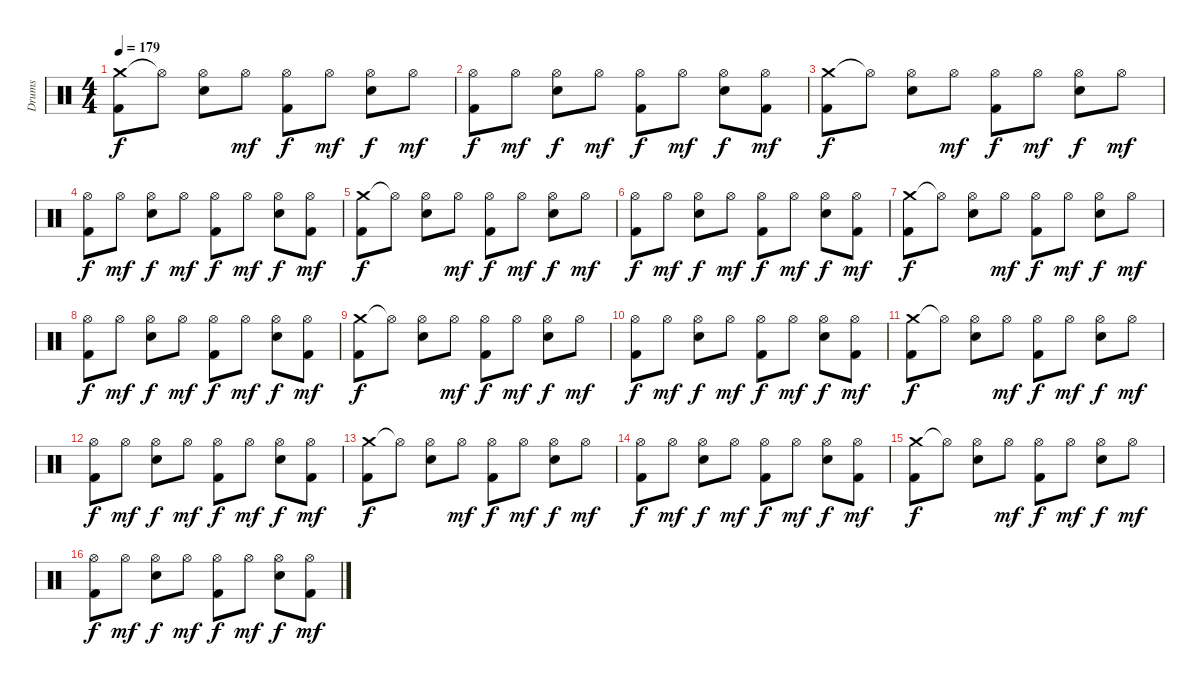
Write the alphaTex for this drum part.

\track ("Drums" "Drums") {instrument percussion}
\staff {score}
\articulation defaults
\ts (4 4)
\tempo 179
\clef neutral
\ks c
("Crash medium (hit)" "Kick (hit) 2").8{dy f} "Hi-Hat (open)"{t}.8 ("Hi-Hat (open)" "Electric Snare (hit)").8 "Hi-Hat (open)".8{dy mf} ("Hi-Hat (open)" "Kick (hit) 2").8{dy f} "Hi-Hat (open)".8{dy mf} ("Hi-Hat (open)" "Electric Snare (hit)").8{dy f} "Hi-Hat (open)".8{dy mf} |
("Hi-Hat (open)" "Kick (hit) 2").8{dy f} "Hi-Hat (open)".8{dy mf} ("Hi-Hat (open)" "Electric Snare (hit)").8{dy f} "Hi-Hat (open)".8{dy mf} ("Hi-Hat (open)" "Kick (hit) 2").8{dy f} "Hi-Hat (open)".8{dy mf} ("Hi-Hat (open)" "Electric Snare (hit)").8{dy f} ("Hi-Hat (open)" "Kick (hit) 2").8{dy mf} |
("Crash medium (hit)" "Kick (hit) 2").8{dy f} "Hi-Hat (open)"{t}.8 ("Hi-Hat (open)" "Electric Snare (hit)").8 "Hi-Hat (open)".8{dy mf} ("Hi-Hat (open)" "Kick (hit) 2").8{dy f} "Hi-Hat (open)".8{dy mf} ("Hi-Hat (open)" "Electric Snare (hit)").8{dy f} "Hi-Hat (open)".8{dy mf} |
("Hi-Hat (open)" "Kick (hit) 2").8{dy f} "Hi-Hat (open)".8{dy mf} ("Hi-Hat (open)" "Electric Snare (hit)").8{dy f} "Hi-Hat (open)".8{dy mf} ("Hi-Hat (open)" "Kick (hit) 2").8{dy f} "Hi-Hat (open)".8{dy mf} ("Hi-Hat (open)" "Electric Snare (hit)").8{dy f} ("Hi-Hat (open)" "Kick (hit) 2").8{dy mf} |
("Crash medium (hit)" "Kick (hit) 2").8{dy f} "Hi-Hat (open)"{t}.8 ("Hi-Hat (open)" "Electric Snare (hit)").8 "Hi-Hat (open)".8{dy mf} ("Hi-Hat (open)" "Kick (hit) 2").8{dy f} "Hi-Hat (open)".8{dy mf} ("Hi-Hat (open)" "Electric Snare (hit)").8{dy f} "Hi-Hat (open)".8{dy mf} |
("Hi-Hat (open)" "Kick (hit) 2").8{dy f} "Hi-Hat (open)".8{dy mf} ("Hi-Hat (open)" "Electric Snare (hit)").8{dy f} "Hi-Hat (open)".8{dy mf} ("Hi-Hat (open)" "Kick (hit) 2").8{dy f} "Hi-Hat (open)".8{dy mf} ("Hi-Hat (open)" "Electric Snare (hit)").8{dy f} ("Hi-Hat (open)" "Kick (hit) 2").8{dy mf} |
("Crash medium (hit)" "Kick (hit) 2").8{dy f} "Hi-Hat (open)"{t}.8 ("Hi-Hat (open)" "Electric Snare (hit)").8 "Hi-Hat (open)".8{dy mf} ("Hi-Hat (open)" "Kick (hit) 2").8{dy f} "Hi-Hat (open)".8{dy mf} ("Hi-Hat (open)" "Electric Snare (hit)").8{dy f} "Hi-Hat (open)".8{dy mf} |
("Hi-Hat (open)" "Kick (hit) 2").8{dy f} "Hi-Hat (open)".8{dy mf} ("Hi-Hat (open)" "Electric Snare (hit)").8{dy f} "Hi-Hat (open)".8{dy mf} ("Hi-Hat (open)" "Kick (hit) 2").8{dy f} "Hi-Hat (open)".8{dy mf} ("Hi-Hat (open)" "Electric Snare (hit)").8{dy f} ("Hi-Hat (open)" "Kick (hit) 2").8{dy mf} |
("Crash medium (hit)" "Kick (hit) 2").8{dy f} "Hi-Hat (open)"{t}.8 ("Hi-Hat (open)" "Electric Snare (hit)").8 "Hi-Hat (open)".8{dy mf} ("Hi-Hat (open)" "Kick (hit) 2").8{dy f} "Hi-Hat (open)".8{dy mf} ("Hi-Hat (open)" "Electric Snare (hit)").8{dy f} "Hi-Hat (open)".8{dy mf} |
("Hi-Hat (open)" "Kick (hit) 2").8{dy f} "Hi-Hat (open)".8{dy mf} ("Hi-Hat (open)" "Electric Snare (hit)").8{dy f} "Hi-Hat (open)".8{dy mf} ("Hi-Hat (open)" "Kick (hit) 2").8{dy f} "Hi-Hat (open)".8{dy mf} ("Hi-Hat (open)" "Electric Snare (hit)").8{dy f} ("Hi-Hat (open)" "Kick (hit) 2").8{dy mf} |
("Crash medium (hit)" "Kick (hit) 2").8{dy f} "Hi-Hat (open)"{t}.8 ("Hi-Hat (open)" "Electric Snare (hit)").8 "Hi-Hat (open)".8{dy mf} ("Hi-Hat (open)" "Kick (hit) 2").8{dy f} "Hi-Hat (open)".8{dy mf} ("Hi-Hat (open)" "Electric Snare (hit)").8{dy f} "Hi-Hat (open)".8{dy mf} |
("Hi-Hat (open)" "Kick (hit) 2").8{dy f} "Hi-Hat (open)".8{dy mf} ("Hi-Hat (open)" "Electric Snare (hit)").8{dy f} "Hi-Hat (open)".8{dy mf} ("Hi-Hat (open)" "Kick (hit) 2").8{dy f} "Hi-Hat (open)".8{dy mf} ("Hi-Hat (open)" "Electric Snare (hit)").8{dy f} ("Hi-Hat (open)" "Kick (hit) 2").8{dy mf} |
("Crash medium (hit)" "Kick (hit) 2").8{dy f} "Hi-Hat (open)"{t}.8 ("Hi-Hat (open)" "Electric Snare (hit)").8 "Hi-Hat (open)".8{dy mf} ("Hi-Hat (open)" "Kick (hit) 2").8{dy f} "Hi-Hat (open)".8{dy mf} ("Hi-Hat (open)" "Electric Snare (hit)").8{dy f} "Hi-Hat (open)".8{dy mf} |
("Hi-Hat (open)" "Kick (hit) 2").8{dy f} "Hi-Hat (open)".8{dy mf} ("Hi-Hat (open)" "Electric Snare (hit)").8{dy f} "Hi-Hat (open)".8{dy mf} ("Hi-Hat (open)" "Kick (hit) 2").8{dy f} "Hi-Hat (open)".8{dy mf} ("Hi-Hat (open)" "Electric Snare (hit)").8{dy f} ("Hi-Hat (open)" "Kick (hit) 2").8{dy mf} |
("Crash medium (hit)" "Kick (hit) 2").8{dy f} "Hi-Hat (open)"{t}.8 ("Hi-Hat (open)" "Electric Snare (hit)").8 "Hi-Hat (open)".8{dy mf} ("Hi-Hat (open)" "Kick (hit) 2").8{dy f} "Hi-Hat (open)".8{dy mf} ("Hi-Hat (open)" "Electric Snare (hit)").8{dy f} "Hi-Hat (open)".8{dy mf} |
("Hi-Hat (open)" "Kick (hit) 2").8{dy f} "Hi-Hat (open)".8{dy mf} ("Hi-Hat (open)" "Electric Snare (hit)").8{dy f} "Hi-Hat (open)".8{dy mf} ("Hi-Hat (open)" "Kick (hit) 2").8{dy f} "Hi-Hat (open)".8{dy mf} ("Hi-Hat (open)" "Electric Snare (hit)").8{dy f} ("Hi-Hat (open)" "Kick (hit) 2").8{dy mf}
